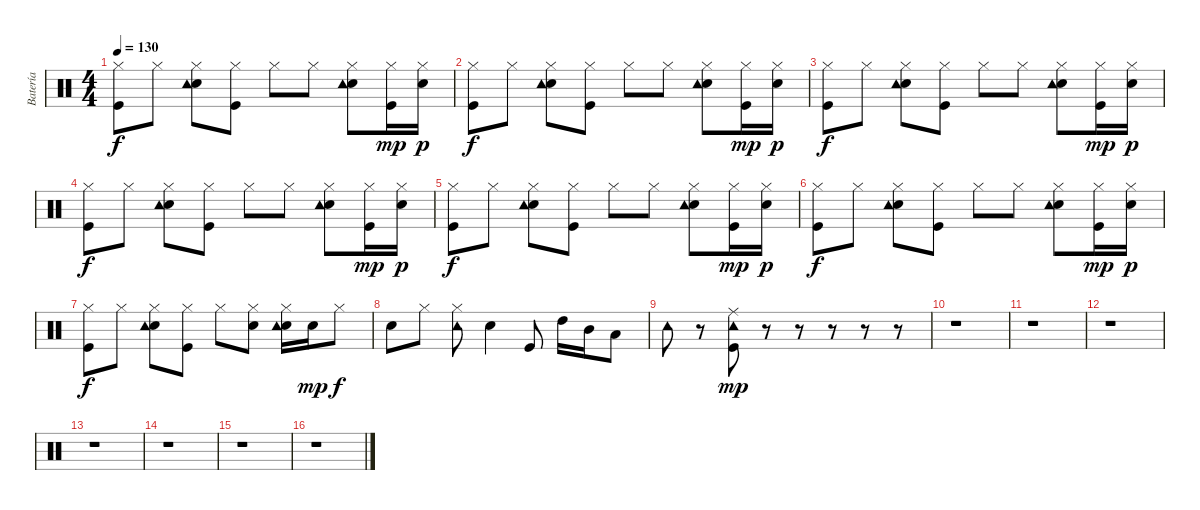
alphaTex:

\track ("Batería" "Batería") {instrument percussion}
\staff {score}
\articulation defaults
\ts (4 4)
\tempo 130
\clef neutral
\ks c
("Hi-Hat (closed)" "Kick (hit)").8{dy f} "Hi-Hat (closed)".8 ("Hi-Hat (closed)" "Snare (hit) 2" "Tambourine (hit)").8 ("Hi-Hat (closed)" "Kick (hit)").8 "Hi-Hat (closed)".8 "Hi-Hat (closed)".8 ("Hi-Hat (closed)" "Snare (hit) 2" "Tambourine (hit)").8 ("Hi-Hat (closed)" "Kick (hit)").16{dy mp} ("Hi-Hat (closed)" "Snare (hit) 2").16{dy p} |
("Hi-Hat (closed)" "Kick (hit)").8{dy f} "Hi-Hat (closed)".8 ("Hi-Hat (closed)" "Snare (hit) 2" "Tambourine (hit)").8 ("Hi-Hat (closed)" "Kick (hit)").8 "Hi-Hat (closed)".8 "Hi-Hat (closed)".8 ("Hi-Hat (closed)" "Snare (hit) 2" "Tambourine (hit)").8 ("Hi-Hat (closed)" "Kick (hit)").16{dy mp} ("Hi-Hat (closed)" "Snare (hit) 2").16{dy p} |
("Hi-Hat (closed)" "Kick (hit)").8{dy f} "Hi-Hat (closed)".8 ("Hi-Hat (closed)" "Snare (hit) 2" "Tambourine (hit)").8 ("Hi-Hat (closed)" "Kick (hit)").8 "Hi-Hat (closed)".8 "Hi-Hat (closed)".8 ("Hi-Hat (closed)" "Snare (hit) 2" "Tambourine (hit)").8 ("Hi-Hat (closed)" "Kick (hit)").16{dy mp} ("Hi-Hat (closed)" "Snare (hit) 2").16{dy p} |
("Hi-Hat (closed)" "Kick (hit)").8{dy f} "Hi-Hat (closed)".8 ("Hi-Hat (closed)" "Snare (hit) 2" "Tambourine (hit)").8 ("Hi-Hat (closed)" "Kick (hit)").8 "Hi-Hat (closed)".8 "Hi-Hat (closed)".8 ("Hi-Hat (closed)" "Snare (hit) 2" "Tambourine (hit)").8 ("Hi-Hat (closed)" "Kick (hit)").16{dy mp} ("Hi-Hat (closed)" "Snare (hit) 2").16{dy p} |
("Hi-Hat (closed)" "Kick (hit)").8{dy f} "Hi-Hat (closed)".8 ("Hi-Hat (closed)" "Snare (hit) 2" "Tambourine (hit)").8 ("Hi-Hat (closed)" "Kick (hit)").8 "Hi-Hat (closed)".8 "Hi-Hat (closed)".8 ("Hi-Hat (closed)" "Snare (hit) 2" "Tambourine (hit)").8 ("Hi-Hat (closed)" "Kick (hit)").16{dy mp} ("Hi-Hat (closed)" "Snare (hit) 2").16{dy p} |
("Hi-Hat (closed)" "Kick (hit)").8{dy f} "Hi-Hat (closed)".8 ("Hi-Hat (closed)" "Snare (hit) 2" "Tambourine (hit)").8 ("Hi-Hat (closed)" "Kick (hit)").8 "Hi-Hat (closed)".8 "Hi-Hat (closed)".8 ("Hi-Hat (closed)" "Snare (hit) 2" "Tambourine (hit)").8 ("Hi-Hat (closed)" "Kick (hit)").16{dy mp} ("Hi-Hat (closed)" "Snare (hit) 2").16{dy p} |
("Hi-Hat (closed)" "Kick (hit)").8{dy f} "Hi-Hat (closed)".8 ("Hi-Hat (closed)" "Snare (hit) 2" "Tambourine (hit)").8 ("Hi-Hat (closed)" "Kick (hit)").8 "Hi-Hat (closed)".8 ("Hi-Hat (closed)" "Snare (hit) 2").8 ("Hi-Hat (closed)" "Snare (hit) 2" "Tambourine (hit)").16 "Snare (hit) 2".16{dy mp} "Hi-Hat (closed)".8{dy f} |
"Snare (hit) 2".8 "Hi-Hat (closed)".8 ("Hi-Hat (closed)" "Tambourine (hit)").8 "Snare (hit) 2".4 "Kick (hit)".8 "High Tom (hit)".16 "Mid Tom (hit)".16 "Low Tom (hit)".8 |
"Tambourine (hit)".8 r.8 ("Tambourine (hit)" "Kick (hit)" "Ride (middle)").8{dy mp} r.8 r.8 r.8 r.8 r.8 |
r.1 |
r.1 |
r.1 |
r.1 |
r.1 |
r.1 |
r.1
